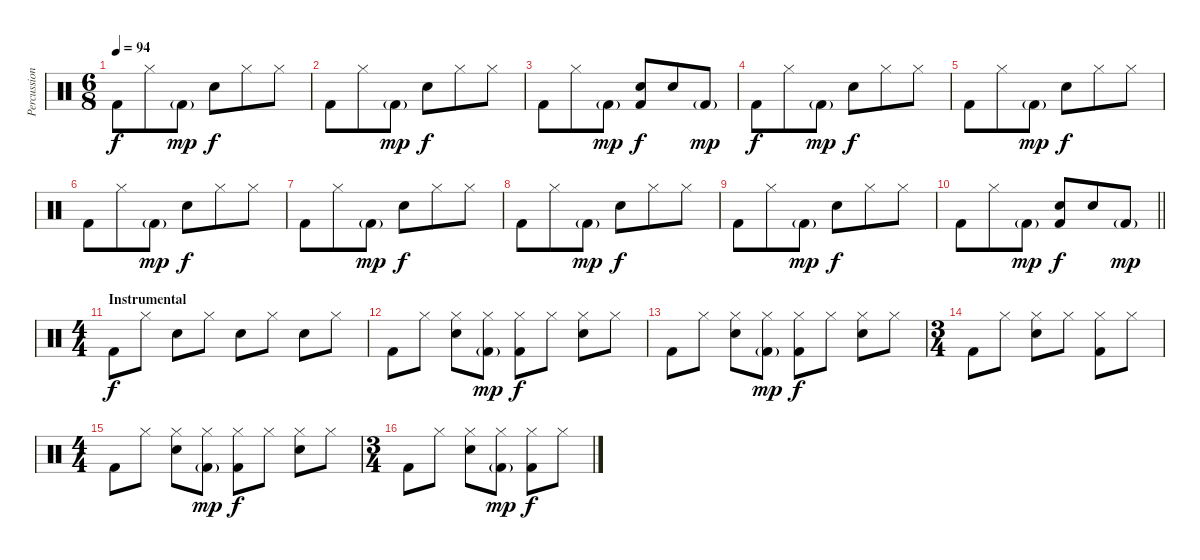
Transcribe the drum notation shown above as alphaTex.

\track ("Percussion" "Percussion") {instrument percussion}
\staff {score}
\articulation defaults
\ts (6 8)
\tempo 94
\clef neutral
\ks c "Kick (hit) 2".8{dy f} "Hi-Hat (closed)".8 "Kick (hit) 2"{g}.8{dy mp} "Snare (hit) 2".8{dy f} "Hi-Hat (closed)".8 "Hi-Hat (closed)".8
|
"Kick (hit) 2".8 "Hi-Hat (closed)".8 "Kick (hit) 2"{g}.8{dy mp} "Snare (hit) 2".8{dy f} "Hi-Hat (closed)".8 "Hi-Hat (closed)".8 |
"Kick (hit) 2".8 "Hi-Hat (closed)".8 "Kick (hit) 2"{g}.8{dy mp} ("Snare (hit) 2" "Kick (hit) 2").8{dy f} "Snare (hit) 2".8 "Kick (hit) 2"{g}.8{dy mp} |
"Kick (hit) 2".8{dy f} "Hi-Hat (closed)".8 "Kick (hit) 2"{g}.8{dy mp} "Snare (hit) 2".8{dy f} "Hi-Hat (closed)".8 "Hi-Hat (closed)".8 |
"Kick (hit) 2".8 "Hi-Hat (closed)".8 "Kick (hit) 2"{g}.8{dy mp} "Snare (hit) 2".8{dy f} "Hi-Hat (closed)".8 "Hi-Hat (closed)".8 |
"Kick (hit) 2".8 "Hi-Hat (closed)".8 "Kick (hit) 2"{g}.8{dy mp} "Snare (hit) 2".8{dy f} "Hi-Hat (closed)".8 "Hi-Hat (closed)".8 |
"Kick (hit) 2".8 "Hi-Hat (closed)".8 "Kick (hit) 2"{g}.8{dy mp} "Snare (hit) 2".8{dy f} "Hi-Hat (closed)".8 "Hi-Hat (closed)".8 |
"Kick (hit) 2".8 "Hi-Hat (closed)".8 "Kick (hit) 2"{g}.8{dy mp} "Snare (hit) 2".8{dy f} "Hi-Hat (closed)".8 "Hi-Hat (closed)".8 |
"Kick (hit) 2".8 "Hi-Hat (closed)".8 "Kick (hit) 2"{g}.8{dy mp} "Snare (hit) 2".8{dy f} "Hi-Hat (closed)".8 "Hi-Hat (closed)".8 |
\barLineRight lightlight "Kick (hit) 2".8 "Hi-Hat (closed)".8 "Kick (hit) 2"{g}.8{dy mp}
("Snare (hit) 2" "Kick (hit) 2").8{dy f} "Snare (hit) 2".8 "Kick (hit) 2"{g}.8{dy mp} |
\ts (4 4)
\section ("" "Instrumental")
"Kick (hit) 2".8{dy f} "Hi-Hat (closed)".8 "Snare (hit) 2".8 "Hi-Hat (closed)".8 "Snare (hit) 2".8 "Hi-Hat (closed)".8 "Snare (hit) 2".8 "Hi-Hat (closed)".8 |
"Kick (hit) 2".8 "Hi-Hat (closed)".8 ("Hi-Hat (closed)" "Snare (hit) 2").8 ("Hi-Hat (closed)" "Kick (hit) 2"{g}).8{dy mp} ("Hi-Hat (closed)" "Kick (hit) 2").8{dy f} "Hi-Hat (closed)".8 ("Hi-Hat (closed)" "Snare (hit) 2").8 "Hi-Hat (closed)".8 |
"Kick (hit) 2".8 "Hi-Hat (closed)".8 ("Hi-Hat (closed)" "Snare (hit) 2").8 ("Hi-Hat (closed)" "Kick (hit) 2"{g}).8{dy mp} ("Hi-Hat (closed)" "Kick (hit) 2").8{dy f} "Hi-Hat (closed)".8 ("Hi-Hat (closed)" "Snare (hit) 2").8 "Hi-Hat (closed)".8 |
\ts (3 4)
"Kick (hit) 2".8 "Hi-Hat (closed)".8 ("Hi-Hat (closed)" "Snare (hit) 2").8 "Hi-Hat (closed)".8 ("Hi-Hat (closed)" "Kick (hit) 2").8 "Hi-Hat (closed)".8 |
\ts (4 4)
"Kick (hit) 2".8 "Hi-Hat (closed)".8 ("Hi-Hat (closed)" "Snare (hit) 2").8 ("Hi-Hat (closed)" "Kick (hit) 2"{g}).8{dy mp} ("Hi-Hat (closed)" "Kick (hit) 2").8{dy f} "Hi-Hat (closed)".8 ("Hi-Hat (closed)" "Snare (hit) 2").8 "Hi-Hat (closed)".8 |
\ts (3 4)
"Kick (hit) 2".8 "Hi-Hat (closed)".8 ("Hi-Hat (closed)" "Snare (hit) 2").8 ("Hi-Hat (closed)" "Kick (hit) 2"{g}).8{dy mp} ("Hi-Hat (closed)" "Kick (hit) 2").8{dy f} "Hi-Hat (closed)".8
